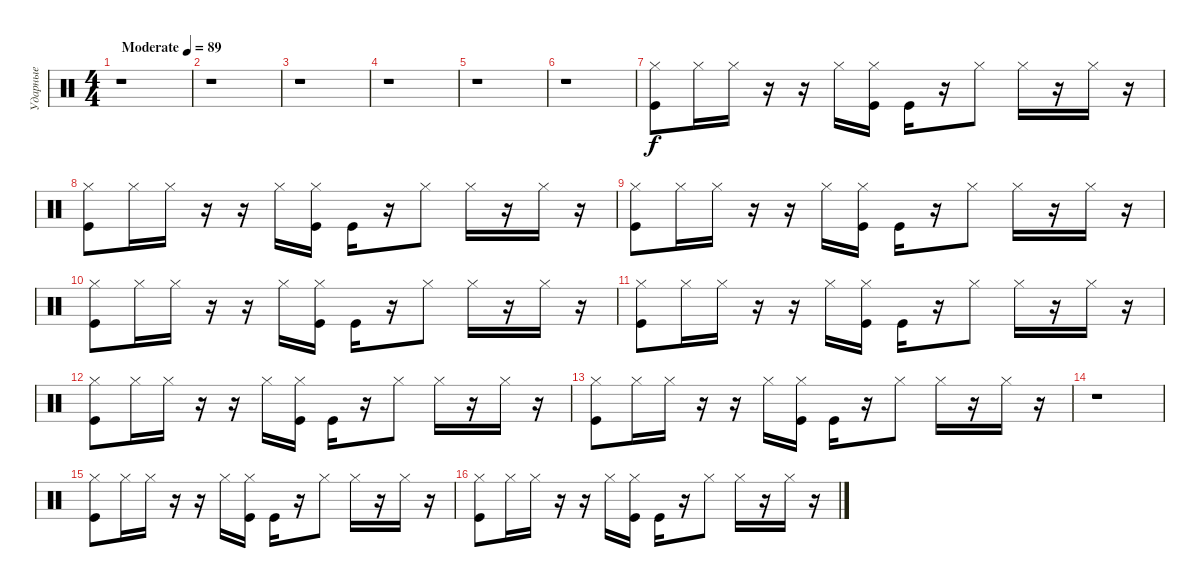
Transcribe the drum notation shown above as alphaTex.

\track ("Ударные" "Ударные") {instrument percussion}
\staff {score}
\articulation defaults
\ts (4 4)
\tempo (89 "Moderate")
\clef neutral
\ks c
r.1{dy f} |
r.1 |
r.1 |
r.1 |
r.1 |
r.1 |
("Hi-Hat (closed)" "Kick (hit)").8 "Hi-Hat (closed)".16 "Hi-Hat (closed)".16 r.16 r.16 "Hi-Hat (closed)".16 ("Hi-Hat (closed)" "Kick (hit)").16 "Kick (hit)".16 r.16 "Hi-Hat (closed)".8 "Hi-Hat (closed)".16 r.16 "Hi-Hat (closed)".16 r.16 |
("Hi-Hat (closed)" "Kick (hit)").8 "Hi-Hat (closed)".16 "Hi-Hat (closed)".16 r.16 r.16 "Hi-Hat (closed)".16 ("Hi-Hat (closed)" "Kick (hit)").16 "Kick (hit)".16 r.16 "Hi-Hat (closed)".8 "Hi-Hat (closed)".16 r.16 "Hi-Hat (closed)".16 r.16 |
("Hi-Hat (closed)" "Kick (hit)").8 "Hi-Hat (closed)".16 "Hi-Hat (closed)".16 r.16 r.16 "Hi-Hat (closed)".16 ("Hi-Hat (closed)" "Kick (hit)").16 "Kick (hit)".16 r.16 "Hi-Hat (closed)".8 "Hi-Hat (closed)".16 r.16 "Hi-Hat (closed)".16 r.16 |
("Hi-Hat (closed)" "Kick (hit)").8 "Hi-Hat (closed)".16 "Hi-Hat (closed)".16 r.16 r.16 "Hi-Hat (closed)".16 ("Hi-Hat (closed)" "Kick (hit)").16 "Kick (hit)".16 r.16 "Hi-Hat (closed)".8 "Hi-Hat (closed)".16 r.16 "Hi-Hat (closed)".16 r.16 |
("Hi-Hat (closed)" "Kick (hit)").8 "Hi-Hat (closed)".16 "Hi-Hat (closed)".16 r.16 r.16 "Hi-Hat (closed)".16 ("Hi-Hat (closed)" "Kick (hit)").16 "Kick (hit)".16 r.16 "Hi-Hat (closed)".8 "Hi-Hat (closed)".16 r.16 "Hi-Hat (closed)".16 r.16 |
("Hi-Hat (closed)" "Kick (hit)").8 "Hi-Hat (closed)".16 "Hi-Hat (closed)".16 r.16 r.16 "Hi-Hat (closed)".16 ("Hi-Hat (closed)" "Kick (hit)").16 "Kick (hit)".16 r.16 "Hi-Hat (closed)".8 "Hi-Hat (closed)".16 r.16 "Hi-Hat (closed)".16 r.16 |
("Hi-Hat (closed)" "Kick (hit)").8 "Hi-Hat (closed)".16 "Hi-Hat (closed)".16 r.16 r.16 "Hi-Hat (closed)".16 ("Hi-Hat (closed)" "Kick (hit)").16 "Kick (hit)".16 r.16 "Hi-Hat (closed)".8 "Hi-Hat (closed)".16 r.16 "Hi-Hat (closed)".16 r.16 |
r.1 |
("Hi-Hat (closed)" "Kick (hit)").8 "Hi-Hat (closed)".16 "Hi-Hat (closed)".16 r.16 r.16 "Hi-Hat (closed)".16 ("Hi-Hat (closed)" "Kick (hit)").16 "Kick (hit)".16 r.16 "Hi-Hat (closed)".8 "Hi-Hat (closed)".16 r.16 "Hi-Hat (closed)".16 r.16 |
("Hi-Hat (closed)" "Kick (hit)").8 "Hi-Hat (closed)".16 "Hi-Hat (closed)".16 r.16 r.16 "Hi-Hat (closed)".16 ("Hi-Hat (closed)" "Kick (hit)").16 "Kick (hit)".16 r.16 "Hi-Hat (closed)".8 "Hi-Hat (closed)".16 r.16 "Hi-Hat (closed)".16 r.16
